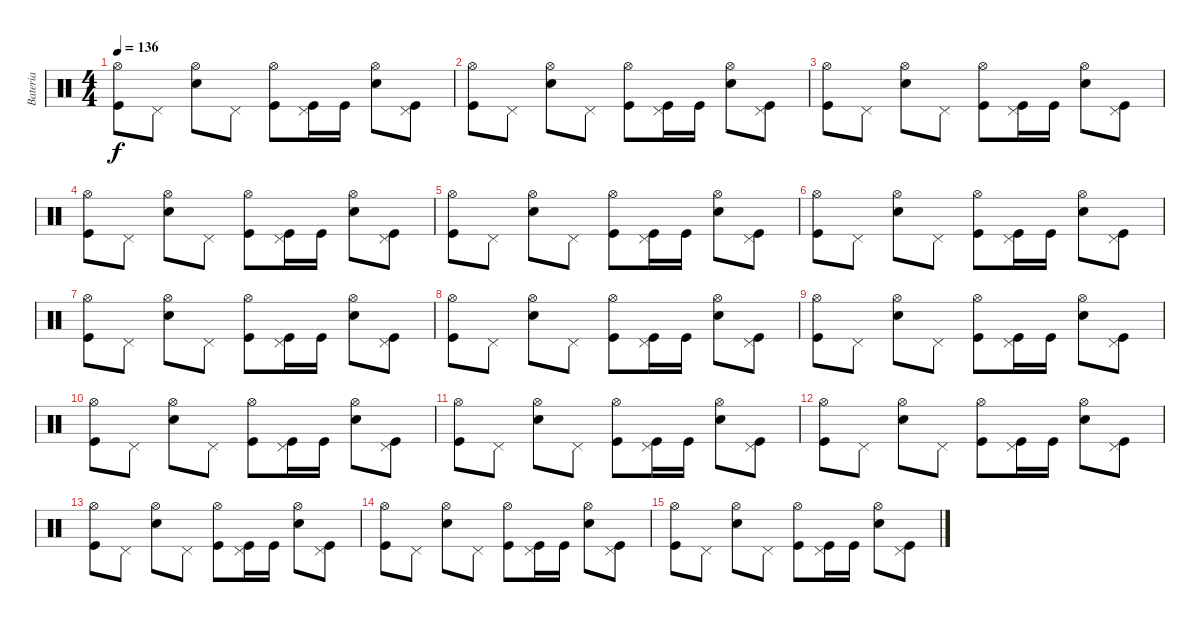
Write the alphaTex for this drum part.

\track ("Bateria" "Bateria") {instrument percussion}
\staff {score}
\articulation defaults
\ts (4 4)
\tempo 136
\clef neutral
\ks c
("Hi-Hat (open)" "Kick (hit)").8{dy f} "Pedal Hi-Hat (hit)".8 ("Hi-Hat (open)" "Snare (hit) 2").8 "Pedal Hi-Hat (hit)".8 ("Hi-Hat (open)" "Kick (hit)").8 ("Pedal Hi-Hat (hit)" "Kick (hit)").16 "Kick (hit)".16 ("Hi-Hat (open)" "Snare (hit) 2").8 ("Pedal Hi-Hat (hit)" "Kick (hit)").8 |
("Hi-Hat (open)" "Kick (hit)").8 "Pedal Hi-Hat (hit)".8 ("Hi-Hat (open)" "Snare (hit) 2").8 "Pedal Hi-Hat (hit)".8 ("Hi-Hat (open)" "Kick (hit)").8 ("Pedal Hi-Hat (hit)" "Kick (hit)").16 "Kick (hit)".16 ("Hi-Hat (open)" "Snare (hit) 2").8 ("Pedal Hi-Hat (hit)" "Kick (hit)").8 |
("Hi-Hat (open)" "Kick (hit)").8 "Pedal Hi-Hat (hit)".8 ("Hi-Hat (open)" "Snare (hit) 2").8 "Pedal Hi-Hat (hit)".8 ("Hi-Hat (open)" "Kick (hit)").8 ("Pedal Hi-Hat (hit)" "Kick (hit)").16 "Kick (hit)".16 ("Hi-Hat (open)" "Snare (hit) 2").8 ("Pedal Hi-Hat (hit)" "Kick (hit)").8 |
("Hi-Hat (open)" "Kick (hit)").8 "Pedal Hi-Hat (hit)".8 ("Hi-Hat (open)" "Snare (hit) 2").8 "Pedal Hi-Hat (hit)".8 ("Hi-Hat (open)" "Kick (hit)").8 ("Pedal Hi-Hat (hit)" "Kick (hit)").16 "Kick (hit)".16 ("Hi-Hat (open)" "Snare (hit) 2").8 ("Pedal Hi-Hat (hit)" "Kick (hit)").8 |
("Hi-Hat (open)" "Kick (hit)").8 "Pedal Hi-Hat (hit)".8 ("Hi-Hat (open)" "Snare (hit) 2").8 "Pedal Hi-Hat (hit)".8 ("Hi-Hat (open)" "Kick (hit)").8 ("Pedal Hi-Hat (hit)" "Kick (hit)").16 "Kick (hit)".16 ("Hi-Hat (open)" "Snare (hit) 2").8 ("Pedal Hi-Hat (hit)" "Kick (hit)").8 |
("Hi-Hat (open)" "Kick (hit)").8 "Pedal Hi-Hat (hit)".8 ("Hi-Hat (open)" "Snare (hit) 2").8 "Pedal Hi-Hat (hit)".8 ("Hi-Hat (open)" "Kick (hit)").8 ("Pedal Hi-Hat (hit)" "Kick (hit)").16 "Kick (hit)".16 ("Hi-Hat (open)" "Snare (hit) 2").8 ("Pedal Hi-Hat (hit)" "Kick (hit)").8 |
("Hi-Hat (open)" "Kick (hit)").8 "Pedal Hi-Hat (hit)".8 ("Hi-Hat (open)" "Snare (hit) 2").8 "Pedal Hi-Hat (hit)".8 ("Hi-Hat (open)" "Kick (hit)").8 ("Pedal Hi-Hat (hit)" "Kick (hit)").16 "Kick (hit)".16 ("Hi-Hat (open)" "Snare (hit) 2").8 ("Pedal Hi-Hat (hit)" "Kick (hit)").8 |
("Hi-Hat (open)" "Kick (hit)").8 "Pedal Hi-Hat (hit)".8 ("Hi-Hat (open)" "Snare (hit) 2").8 "Pedal Hi-Hat (hit)".8 ("Hi-Hat (open)" "Kick (hit)").8 ("Pedal Hi-Hat (hit)" "Kick (hit)").16 "Kick (hit)".16 ("Hi-Hat (open)" "Snare (hit) 2").8 ("Pedal Hi-Hat (hit)" "Kick (hit)").8 |
("Hi-Hat (open)" "Kick (hit)").8 "Pedal Hi-Hat (hit)".8 ("Hi-Hat (open)" "Snare (hit) 2").8 "Pedal Hi-Hat (hit)".8 ("Hi-Hat (open)" "Kick (hit)").8 ("Pedal Hi-Hat (hit)" "Kick (hit)").16 "Kick (hit)".16 ("Hi-Hat (open)" "Snare (hit) 2").8 ("Pedal Hi-Hat (hit)" "Kick (hit)").8 |
("Hi-Hat (open)" "Kick (hit)").8 "Pedal Hi-Hat (hit)".8 ("Hi-Hat (open)" "Snare (hit) 2").8 "Pedal Hi-Hat (hit)".8 ("Hi-Hat (open)" "Kick (hit)").8 ("Pedal Hi-Hat (hit)" "Kick (hit)").16 "Kick (hit)".16 ("Hi-Hat (open)" "Snare (hit) 2").8 ("Pedal Hi-Hat (hit)" "Kick (hit)").8 |
("Hi-Hat (open)" "Kick (hit)").8 "Pedal Hi-Hat (hit)".8 ("Hi-Hat (open)" "Snare (hit) 2").8 "Pedal Hi-Hat (hit)".8 ("Hi-Hat (open)" "Kick (hit)").8 ("Pedal Hi-Hat (hit)" "Kick (hit)").16 "Kick (hit)".16 ("Hi-Hat (open)" "Snare (hit) 2").8 ("Pedal Hi-Hat (hit)" "Kick (hit)").8 |
("Hi-Hat (open)" "Kick (hit)").8 "Pedal Hi-Hat (hit)".8 ("Hi-Hat (open)" "Snare (hit) 2").8 "Pedal Hi-Hat (hit)".8 ("Hi-Hat (open)" "Kick (hit)").8 ("Pedal Hi-Hat (hit)" "Kick (hit)").16 "Kick (hit)".16 ("Hi-Hat (open)" "Snare (hit) 2").8 ("Pedal Hi-Hat (hit)" "Kick (hit)").8 |
("Hi-Hat (open)" "Kick (hit)").8 "Pedal Hi-Hat (hit)".8 ("Hi-Hat (open)" "Snare (hit) 2").8 "Pedal Hi-Hat (hit)".8 ("Hi-Hat (open)" "Kick (hit)").8 ("Pedal Hi-Hat (hit)" "Kick (hit)").16 "Kick (hit)".16 ("Hi-Hat (open)" "Snare (hit) 2").8 ("Pedal Hi-Hat (hit)" "Kick (hit)").8 |
("Hi-Hat (open)" "Kick (hit)").8 "Pedal Hi-Hat (hit)".8 ("Hi-Hat (open)" "Snare (hit) 2").8 "Pedal Hi-Hat (hit)".8 ("Hi-Hat (open)" "Kick (hit)").8 ("Pedal Hi-Hat (hit)" "Kick (hit)").16 "Kick (hit)".16 ("Hi-Hat (open)" "Snare (hit) 2").8 ("Pedal Hi-Hat (hit)" "Kick (hit)").8 |
("Hi-Hat (open)" "Kick (hit)").8 "Pedal Hi-Hat (hit)".8 ("Hi-Hat (open)" "Snare (hit) 2").8 "Pedal Hi-Hat (hit)".8 ("Hi-Hat (open)" "Kick (hit)").8 ("Pedal Hi-Hat (hit)" "Kick (hit)").16 "Kick (hit)".16 ("Hi-Hat (open)" "Snare (hit) 2").8 ("Pedal Hi-Hat (hit)" "Kick (hit)").8
